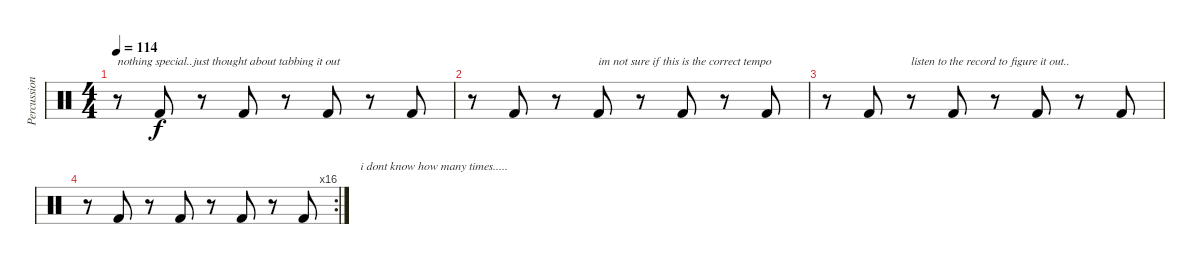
\track ("Percussion" "Percussion") {instrument percussion}
\staff {score}
\articulation defaults
\ts (4 4)
\tempo 114
\clef neutral
\ks c
r.8{txt "nothing special..just thought about tabbing it out" dy f} "Kick (hit) 2".8 r.8 "Kick (hit) 2".8 r.8 "Kick (hit) 2".8 r.8 "Kick (hit) 2".8 |
r.8 "Kick (hit) 2".8 r.8 "Kick (hit) 2".8{txt "im not sure if this is the correct tempo"} r.8 "Kick (hit) 2".8 r.8 "Kick (hit) 2".8 |
r.8 "Kick (hit) 2".8 r.8{txt "listen to the record to figure it out.."} "Kick (hit) 2".8 r.8 "Kick (hit) 2".8 r.8 "Kick (hit) 2".8 |
\rc 16
r.8 "Kick (hit) 2".8 r.8 "Kick (hit) 2".8 r.8 "Kick (hit) 2".8 r.8 "Kick (hit) 2".8{txt "                   i dont know how many times....."}
